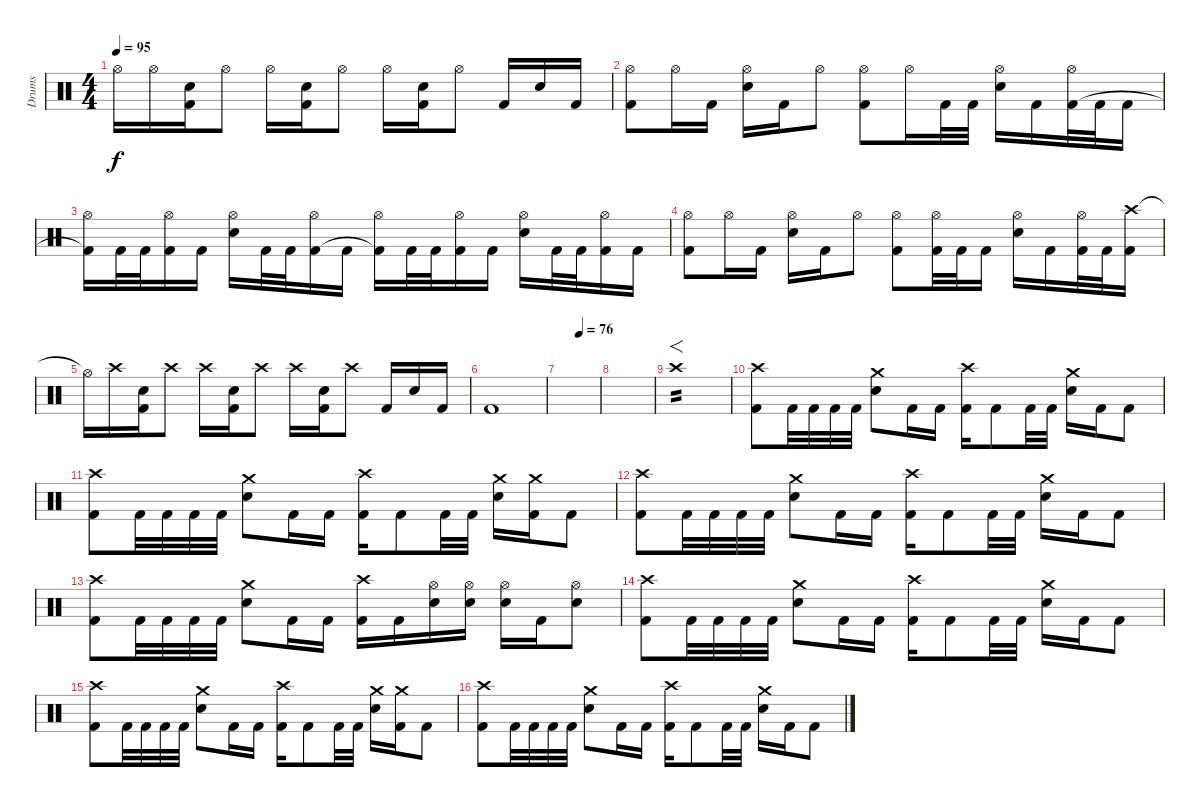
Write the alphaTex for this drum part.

\track ("Drums" "Drums") {instrument percussion}
\staff {score}
\articulation defaults
\ts (4 4)
\tempo 95
\clef neutral
\ks c "Hi-Hat (open)"{t}.16{dy f} "Hi-Hat (open)".16
("Electric Snare (hit)" "Kick (hit) 2").16 "Hi-Hat (open)".8 "Hi-Hat (open)".16 ("Electric Snare (hit)" "Kick (hit) 2").16 "Hi-Hat (open)".8 "Hi-Hat (open)".16 ("Electric Snare (hit)" "Kick (hit) 2").16 "Hi-Hat (open)".8 "Kick (hit) 2".16 "Electric Snare (hit)".16 "Kick (hit) 2".16 |
("Hi-Hat (open)" "Kick (hit) 2").8 "Hi-Hat (open)".16 "Kick (hit) 2".16 ("Hi-Hat (open)" "Electric Snare (hit)").16 "Kick (hit) 2".16 "Hi-Hat (open)".8 ("Hi-Hat (open)" "Kick (hit) 2").8 "Hi-Hat (open)".16 "Kick (hit) 2".32 "Kick (hit) 2".32 ("Hi-Hat (open)" "Electric Snare (hit)").16 "Kick (hit) 2".16 ("Hi-Hat (open)" "Kick (hit) 2").32 "Kick (hit) 2".32 "Kick (hit) 2".16 |
("Hi-Hat (open)" "Kick (hit) 2"{t}).16 "Kick (hit) 2".32 "Kick (hit) 2".32 ("Hi-Hat (open)" "Kick (hit) 2").16 "Kick (hit) 2".16 ("Hi-Hat (open)" "Electric Snare (hit)").16 "Kick (hit) 2".32 "Kick (hit) 2".32 ("Hi-Hat (open)" "Kick (hit) 2").16 "Kick (hit) 2".16 ("Hi-Hat (open)" "Kick (hit) 2"{t}).16 "Kick (hit) 2".32 "Kick (hit) 2".32 ("Hi-Hat (open)" "Kick (hit) 2").16 "Kick (hit) 2".16 ("Hi-Hat (open)" "Electric Snare (hit)").16 "Kick (hit) 2".32 "Kick (hit) 2".32 ("Hi-Hat (open)" "Kick (hit) 2").16 "Kick (hit) 2".16 |
("Hi-Hat (open)" "Kick (hit) 2").8 "Hi-Hat (open)".16 "Kick (hit) 2".16 ("Hi-Hat (open)" "Electric Snare (hit)").16 "Kick (hit) 2".16 "Hi-Hat (open)".8 ("Hi-Hat (open)" "Kick (hit) 2").8 ("Hi-Hat (open)" "Kick (hit) 2").32 "Kick (hit) 2".32 "Kick (hit) 2".16 ("Hi-Hat (open)" "Electric Snare (hit)").16 "Kick (hit) 2".16 ("Hi-Hat (open)" "Kick (hit) 2").32 "Kick (hit) 2".32 ("Crash high (hit)" "Kick (hit) 2").16 |
"Hi-Hat (open)"{t}.16 "Crash high (hit)".16 ("Electric Snare (hit)" "Kick (hit) 2").16 "Crash high (hit)".8 "Crash high (hit)".16 ("Electric Snare (hit)" "Kick (hit) 2").16 "Crash high (hit)".8 "Crash high (hit)".16 ("Electric Snare (hit)" "Kick (hit) 2").16 "Crash high (hit)".8 "Kick (hit) 2".16 "Electric Snare (hit)".16 "Kick (hit) 2".16 |
"Kick (hit) 2".1 |
\tempo (76 0.5)
|
|
"Crash high (hit)".1{f tp 2} |
("Crash high (hit)" "Kick (hit) 2").8 "Kick (hit) 2".32 "Kick (hit) 2".32 "Kick (hit) 2".32 "Kick (hit) 2".32 ("Crash medium (hit)" "Electric Snare (hit)").8 "Kick (hit) 2".16 "Kick (hit) 2".16 ("Crash high (hit)" "Kick (hit) 2").16 "Kick (hit) 2".8 "Kick (hit) 2".32 "Kick (hit) 2".32 ("Crash medium (hit)" "Electric Snare (hit)").16 "Kick (hit) 2".16 "Kick (hit) 2".8 |
("Crash high (hit)" "Kick (hit) 2").8 "Kick (hit) 2".32 "Kick (hit) 2".32 "Kick (hit) 2".32 "Kick (hit) 2".32 ("Crash medium (hit)" "Electric Snare (hit)").8 "Kick (hit) 2".16 "Kick (hit) 2".16 ("Crash high (hit)" "Kick (hit) 2").16 "Kick (hit) 2".8 "Kick (hit) 2".32 "Kick (hit) 2".32 ("Crash medium (hit)" "Electric Snare (hit)").16 ("Crash medium (hit)" "Kick (hit) 2").16 "Kick (hit) 2".8 |
("Crash high (hit)" "Kick (hit) 2").8 "Kick (hit) 2".32 "Kick (hit) 2".32 "Kick (hit) 2".32 "Kick (hit) 2".32 ("Crash medium (hit)" "Electric Snare (hit)").8 "Kick (hit) 2".16 "Kick (hit) 2".16 ("Crash high (hit)" "Kick (hit) 2").16 "Kick (hit) 2".8 "Kick (hit) 2".32 "Kick (hit) 2".32 ("Crash medium (hit)" "Electric Snare (hit)").16 "Kick (hit) 2".16 "Kick (hit) 2".8 |
("Crash high (hit)" "Kick (hit) 2").8 "Kick (hit) 2".32 "Kick (hit) 2".32 "Kick (hit) 2".32 "Kick (hit) 2".32 ("Crash medium (hit)" "Electric Snare (hit)").8 "Kick (hit) 2".16 "Kick (hit) 2".16 ("Crash high (hit)" "Kick (hit) 2").16 "Kick (hit) 2".16 ("Hi-Hat (open)" "Electric Snare (hit)").16 ("Hi-Hat (open)" "Electric Snare (hit)").16 ("Hi-Hat (open)" "Electric Snare (hit)").16 "Kick (hit) 2".16 ("Hi-Hat (open)" "Electric Snare (hit)").8 |
("Crash high (hit)" "Kick (hit) 2").8 "Kick (hit) 2".32 "Kick (hit) 2".32 "Kick (hit) 2".32 "Kick (hit) 2".32 ("Crash medium (hit)" "Electric Snare (hit)").8 "Kick (hit) 2".16 "Kick (hit) 2".16 ("Crash high (hit)" "Kick (hit) 2").16 "Kick (hit) 2".8 "Kick (hit) 2".32 "Kick (hit) 2".32 ("Crash medium (hit)" "Electric Snare (hit)").16 "Kick (hit) 2".16 "Kick (hit) 2".8 |
("Crash high (hit)" "Kick (hit) 2").8 "Kick (hit) 2".32 "Kick (hit) 2".32 "Kick (hit) 2".32 "Kick (hit) 2".32 ("Crash medium (hit)" "Electric Snare (hit)").8 "Kick (hit) 2".16 "Kick (hit) 2".16 ("Crash high (hit)" "Kick (hit) 2").16 "Kick (hit) 2".8 "Kick (hit) 2".32 "Kick (hit) 2".32 ("Crash medium (hit)" "Electric Snare (hit)").16 ("Crash medium (hit)" "Kick (hit) 2").16 "Kick (hit) 2".8 |
("Crash high (hit)" "Kick (hit) 2").8 "Kick (hit) 2".32 "Kick (hit) 2".32 "Kick (hit) 2".32 "Kick (hit) 2".32 ("Crash medium (hit)" "Electric Snare (hit)").8 "Kick (hit) 2".16 "Kick (hit) 2".16 ("Crash high (hit)" "Kick (hit) 2").16 "Kick (hit) 2".8 "Kick (hit) 2".32 "Kick (hit) 2".32 ("Crash medium (hit)" "Electric Snare (hit)").16 "Kick (hit) 2".16 "Kick (hit) 2".8
